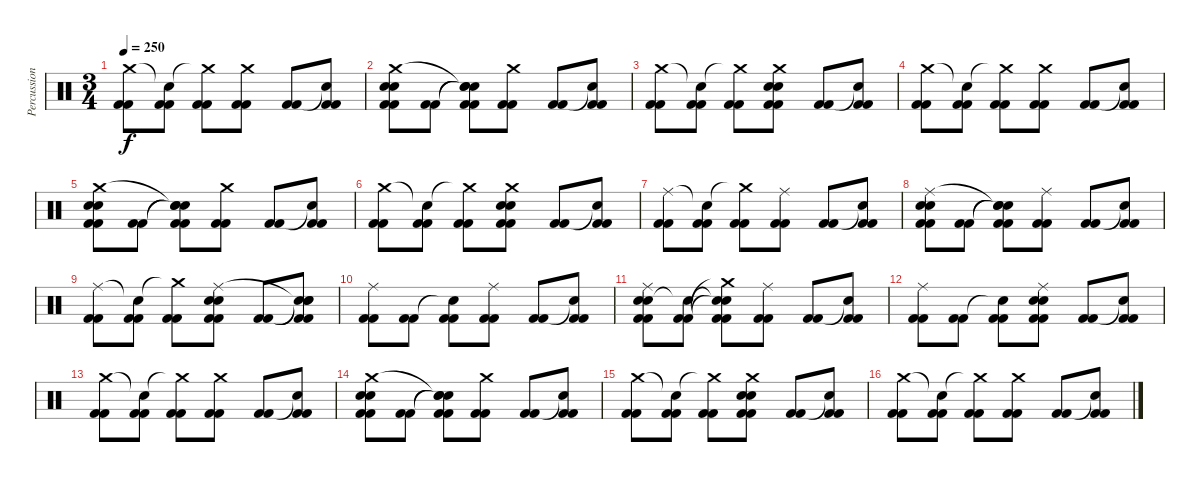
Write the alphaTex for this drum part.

\track ("Percussion" "Percussion") {instrument percussion}
\staff {score}
\articulation defaults
\ts (3 4)
\tempo 250
\clef neutral
\ks c
("Crash medium (hit)" "Kick (hit) 2" "Kick (hit) 2").8{dy f} ("Snare (hit)"{t} "Kick (hit) 2" "Kick (hit) 2").8 ("Crash medium (hit)"{t} "Kick (hit) 2" "Kick (hit) 2").8 ("Crash medium (hit)" "Kick (hit) 2" "Kick (hit) 2").8 ("Kick (hit) 2" "Kick (hit) 2").8 ("Snare (hit)"{t} "Kick (hit) 2" "Kick (hit) 2").8 |
("Snare (hit) 2" "Snare (hit) 2" "Crash medium (hit)" "Kick (hit) 2" "Kick (hit) 2").8 ("Kick (hit) 2" "Kick (hit) 2").8 ("Snare (hit)"{t} "Snare (hit)"{t} "Snare (hit)"{t} "Kick (hit) 2" "Kick (hit) 2").8 ("Crash medium (hit)" "Kick (hit) 2" "Kick (hit) 2").8 ("Kick (hit) 2" "Kick (hit) 2").8 ("Snare (hit)"{t} "Kick (hit) 2" "Kick (hit) 2").8 |
("Crash medium (hit)" "Kick (hit) 2" "Kick (hit) 2").8 ("Snare (hit)"{t} "Kick (hit) 2" "Kick (hit) 2").8 ("Crash medium (hit)"{t} "Kick (hit) 2" "Kick (hit) 2").8 ("Snare (hit) 2" "Snare (hit) 2" "Crash medium (hit)" "Kick (hit) 2" "Kick (hit) 2").8 ("Kick (hit) 2" "Kick (hit) 2").8 ("Snare (hit)"{t} "Kick (hit) 2" "Kick (hit) 2").8 |
("Crash medium (hit)" "Kick (hit) 2" "Kick (hit) 2").8 ("Snare (hit)"{t} "Kick (hit) 2" "Kick (hit) 2").8 ("Crash medium (hit)"{t} "Kick (hit) 2" "Kick (hit) 2").8 ("Crash medium (hit)" "Kick (hit) 2" "Kick (hit) 2").8 ("Kick (hit) 2" "Kick (hit) 2").8 ("Snare (hit)"{t} "Kick (hit) 2" "Kick (hit) 2").8 |
("Snare (hit) 2" "Snare (hit) 2" "Crash medium (hit)" "Kick (hit) 2" "Kick (hit) 2").8 ("Kick (hit) 2" "Kick (hit) 2").8 ("Snare (hit)"{t} "Snare (hit)"{t} "Snare (hit)"{t} "Kick (hit) 2" "Kick (hit) 2").8 ("Crash medium (hit)" "Kick (hit) 2" "Kick (hit) 2").8 ("Kick (hit) 2" "Kick (hit) 2").8 ("Snare (hit)"{t} "Kick (hit) 2" "Kick (hit) 2").8 |
("Crash medium (hit)" "Kick (hit) 2" "Kick (hit) 2").8 ("Snare (hit)"{t} "Kick (hit) 2" "Kick (hit) 2").8 ("Crash medium (hit)"{t} "Kick (hit) 2" "Kick (hit) 2").8 ("Snare (hit) 2" "Snare (hit) 2" "Crash medium (hit)" "Kick (hit) 2" "Kick (hit) 2").8 ("Kick (hit) 2" "Kick (hit) 2").8 ("Snare (hit)"{t} "Kick (hit) 2" "Kick (hit) 2").8 |
("Ride (middle)" "Kick (hit) 2" "Kick (hit) 2").8 ("Snare (hit)"{t} "Kick (hit) 2" "Kick (hit) 2").8 ("Crash medium (hit)"{t} "Kick (hit) 2" "Kick (hit) 2").8 ("Ride (middle)" "Kick (hit) 2" "Kick (hit) 2").8 ("Kick (hit) 2" "Kick (hit) 2").8 ("Snare (hit)"{t} "Kick (hit) 2" "Kick (hit) 2").8 |
("Snare (hit) 2" "Snare (hit) 2" "Ride (middle)" "Kick (hit) 2" "Kick (hit) 2").8 ("Kick (hit) 2" "Kick (hit) 2").8 ("Snare (hit)"{t} "Snare (hit)"{t} "Snare (hit)"{t} "Kick (hit) 2" "Kick (hit) 2").8 ("Ride (middle)" "Kick (hit) 2" "Kick (hit) 2").8 ("Kick (hit) 2" "Kick (hit) 2").8 ("Snare (hit)"{t} "Kick (hit) 2" "Kick (hit) 2").8 |
("Ride (middle)" "Kick (hit) 2" "Kick (hit) 2").8 ("Snare (hit)"{t} "Kick (hit) 2" "Kick (hit) 2").8 ("Crash medium (hit)"{t} "Kick (hit) 2" "Kick (hit) 2").8 ("Snare (hit) 2" "Snare (hit) 2" "Ride (middle)" "Kick (hit) 2" "Kick (hit) 2").8 ("Kick (hit) 2" "Kick (hit) 2").8 ("Snare (hit)"{t} "Snare (hit)"{t} "Snare (hit)"{t} "Kick (hit) 2" "Kick (hit) 2").8 |
("Ride (middle)" "Kick (hit) 2" "Kick (hit) 2").8 ("Kick (hit) 2" "Kick (hit) 2").8 ("Snare (hit)"{t} "Kick (hit) 2" "Kick (hit) 2").8 ("Ride (middle)" "Kick (hit) 2" "Kick (hit) 2").8 ("Kick (hit) 2" "Kick (hit) 2").8 ("Snare (hit)"{t} "Kick (hit) 2" "Kick (hit) 2").8 |
("Snare (hit) 2" "Snare (hit) 2" "Ride (middle)" "Kick (hit) 2" "Kick (hit) 2").8 ("Snare (hit)"{t} "Kick (hit) 2" "Kick (hit) 2").8 ("Snare (hit)"{t} "Snare (hit)"{t} "Crash medium (hit)"{t} "Kick (hit) 2" "Kick (hit) 2").8 ("Ride (middle)" "Kick (hit) 2" "Kick (hit) 2").8 ("Kick (hit) 2" "Kick (hit) 2").8 ("Snare (hit)"{t} "Kick (hit) 2" "Kick (hit) 2").8 |
("Ride (middle)" "Kick (hit) 2" "Kick (hit) 2").8 ("Kick (hit) 2" "Kick (hit) 2").8 ("Snare (hit)"{t} "Kick (hit) 2" "Kick (hit) 2").8 ("Snare (hit) 2" "Snare (hit) 2" "Ride (middle)" "Kick (hit) 2" "Kick (hit) 2").8 ("Kick (hit) 2" "Kick (hit) 2").8 ("Snare (hit)"{t} "Kick (hit) 2" "Kick (hit) 2").8 |
("Crash medium (hit)" "Kick (hit) 2" "Kick (hit) 2").8 ("Snare (hit)"{t} "Kick (hit) 2" "Kick (hit) 2").8 ("Crash medium (hit)"{t} "Kick (hit) 2" "Kick (hit) 2").8 ("Crash medium (hit)" "Kick (hit) 2" "Kick (hit) 2").8 ("Kick (hit) 2" "Kick (hit) 2").8 ("Snare (hit)"{t} "Kick (hit) 2" "Kick (hit) 2").8 |
("Snare (hit) 2" "Snare (hit) 2" "Crash medium (hit)" "Kick (hit) 2" "Kick (hit) 2").8 ("Kick (hit) 2" "Kick (hit) 2").8 ("Snare (hit)"{t} "Snare (hit)"{t} "Snare (hit)"{t} "Kick (hit) 2" "Kick (hit) 2").8 ("Crash medium (hit)" "Kick (hit) 2" "Kick (hit) 2").8 ("Kick (hit) 2" "Kick (hit) 2").8 ("Snare (hit)"{t} "Kick (hit) 2" "Kick (hit) 2").8 |
("Crash medium (hit)" "Kick (hit) 2" "Kick (hit) 2").8 ("Snare (hit)"{t} "Kick (hit) 2" "Kick (hit) 2").8 ("Crash medium (hit)"{t} "Kick (hit) 2" "Kick (hit) 2").8 ("Snare (hit) 2" "Snare (hit) 2" "Crash medium (hit)" "Kick (hit) 2" "Kick (hit) 2").8 ("Kick (hit) 2" "Kick (hit) 2").8 ("Snare (hit)"{t} "Kick (hit) 2" "Kick (hit) 2").8 |
("Crash medium (hit)" "Kick (hit) 2" "Kick (hit) 2").8 ("Snare (hit)"{t} "Kick (hit) 2" "Kick (hit) 2").8 ("Crash medium (hit)"{t} "Kick (hit) 2" "Kick (hit) 2").8 ("Crash medium (hit)" "Kick (hit) 2" "Kick (hit) 2").8 ("Kick (hit) 2" "Kick (hit) 2").8 ("Snare (hit)"{t} "Kick (hit) 2" "Kick (hit) 2").8
